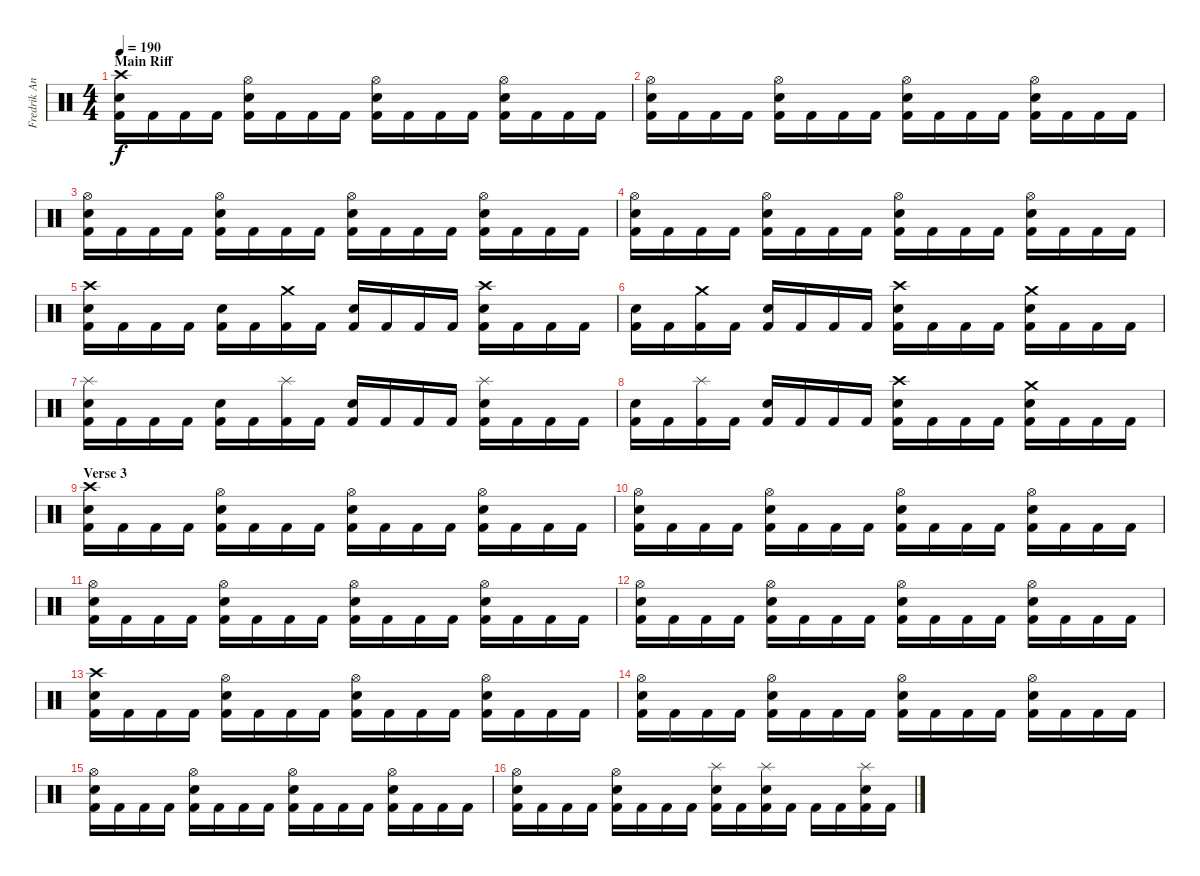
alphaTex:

\track ("Fredrik Andersson" "Fredrik An") {instrument percussion}
\staff {score}
\articulation defaults
\ts (4 4)
\section ("" "Main Riff")
\tempo 190
\clef neutral
\ks c
("Crash high (hit)" "Electric Snare (hit)" "Kick (hit) 2").16{dy f} "Kick (hit) 2".16 "Kick (hit) 2".16 "Kick (hit) 2".16 ("Hi-Hat (open)" "Electric Snare (hit)" "Kick (hit) 2").16 "Kick (hit) 2".16 "Kick (hit) 2".16 "Kick (hit) 2".16 ("Hi-Hat (open)" "Electric Snare (hit)" "Kick (hit) 2").16 "Kick (hit) 2".16 "Kick (hit) 2".16 "Kick (hit) 2".16 ("Hi-Hat (open)" "Electric Snare (hit)" "Kick (hit) 2").16 "Kick (hit) 2".16 "Kick (hit) 2".16 "Kick (hit) 2".16 |
("Hi-Hat (open)" "Electric Snare (hit)" "Kick (hit) 2").16 "Kick (hit) 2".16 "Kick (hit) 2".16 "Kick (hit) 2".16 ("Hi-Hat (open)" "Electric Snare (hit)" "Kick (hit) 2").16 "Kick (hit) 2".16 "Kick (hit) 2".16 "Kick (hit) 2".16 ("Hi-Hat (open)" "Electric Snare (hit)" "Kick (hit) 2").16 "Kick (hit) 2".16 "Kick (hit) 2".16 "Kick (hit) 2".16 ("Hi-Hat (open)" "Electric Snare (hit)" "Kick (hit) 2").16 "Kick (hit) 2".16 "Kick (hit) 2".16 "Kick (hit) 2".16 |
("Hi-Hat (open)" "Electric Snare (hit)" "Kick (hit) 2").16 "Kick (hit) 2".16 "Kick (hit) 2".16 "Kick (hit) 2".16 ("Hi-Hat (open)" "Electric Snare (hit)" "Kick (hit) 2").16 "Kick (hit) 2".16 "Kick (hit) 2".16 "Kick (hit) 2".16 ("Hi-Hat (open)" "Electric Snare (hit)" "Kick (hit) 2").16 "Kick (hit) 2".16 "Kick (hit) 2".16 "Kick (hit) 2".16 ("Hi-Hat (open)" "Electric Snare (hit)" "Kick (hit) 2").16 "Kick (hit) 2".16 "Kick (hit) 2".16 "Kick (hit) 2".16 |
("Hi-Hat (open)" "Electric Snare (hit)" "Kick (hit) 2").16 "Kick (hit) 2".16 "Kick (hit) 2".16 "Kick (hit) 2".16 ("Hi-Hat (open)" "Electric Snare (hit)" "Kick (hit) 2").16 "Kick (hit) 2".16 "Kick (hit) 2".16 "Kick (hit) 2".16 ("Hi-Hat (open)" "Electric Snare (hit)" "Kick (hit) 2").16 "Kick (hit) 2".16 "Kick (hit) 2".16 "Kick (hit) 2".16 ("Hi-Hat (open)" "Electric Snare (hit)" "Kick (hit) 2").16 "Kick (hit) 2".16 "Kick (hit) 2".16 "Kick (hit) 2".16 |
("Crash high (hit)" "Electric Snare (hit)" "Kick (hit) 2").16 "Kick (hit) 2".16 "Kick (hit) 2".16 "Kick (hit) 2".16 ("Electric Snare (hit)" "Kick (hit) 2").16 "Kick (hit) 2".16 ("Crash medium (hit)" "Kick (hit) 2").16 "Kick (hit) 2".16 ("Electric Snare (hit)" "Kick (hit) 2").16 "Kick (hit) 2".16 "Kick (hit) 2".16 "Kick (hit) 2".16 ("Crash high (hit)" "Electric Snare (hit)" "Kick (hit) 2").16 "Kick (hit) 2".16 "Kick (hit) 2".16 "Kick (hit) 2".16 |
("Electric Snare (hit)" "Kick (hit) 2").16 "Kick (hit) 2".16 ("Crash medium (hit)" "Kick (hit) 2").16 "Kick (hit) 2".16 ("Electric Snare (hit)" "Kick (hit) 2").16 "Kick (hit) 2".16 "Kick (hit) 2".16 "Kick (hit) 2".16 ("Crash high (hit)" "Electric Snare (hit)" "Kick (hit) 2").16 "Kick (hit) 2".16 "Kick (hit) 2".16 "Kick (hit) 2".16 ("Crash medium (hit)" "Electric Snare (hit)" "Kick (hit) 2").16 "Kick (hit) 2".16 "Kick (hit) 2".16 "Kick (hit) 2".16 |
("Splash (hit)" "Electric Snare (hit)" "Kick (hit) 2").16 "Kick (hit) 2".16 "Kick (hit) 2".16 "Kick (hit) 2".16 ("Electric Snare (hit)" "Kick (hit) 2").16 "Kick (hit) 2".16 ("Splash (hit)" "Kick (hit) 2").16 "Kick (hit) 2".16 ("Electric Snare (hit)" "Kick (hit) 2").16 "Kick (hit) 2".16 "Kick (hit) 2".16 "Kick (hit) 2".16 ("Splash (hit)" "Electric Snare (hit)" "Kick (hit) 2").16 "Kick (hit) 2".16 "Kick (hit) 2".16 "Kick (hit) 2".16 |
("Electric Snare (hit)" "Kick (hit) 2").16 "Kick (hit) 2".16 ("Splash (hit)" "Kick (hit) 2").16 "Kick (hit) 2".16 ("Electric Snare (hit)" "Kick (hit) 2").16 "Kick (hit) 2".16 "Kick (hit) 2".16 "Kick (hit) 2".16 ("Crash high (hit)" "Electric Snare (hit)" "Kick (hit) 2").16 "Kick (hit) 2".16 "Kick (hit) 2".16 "Kick (hit) 2".16 ("Crash medium (hit)" "Electric Snare (hit)" "Kick (hit) 2").16 "Kick (hit) 2".16 "Kick (hit) 2".16 "Kick (hit) 2".16 |
\section ("" "Verse 3")
("Crash high (hit)" "Electric Snare (hit)" "Kick (hit) 2").16 "Kick (hit) 2".16 "Kick (hit) 2".16 "Kick (hit) 2".16 ("Hi-Hat (open)" "Electric Snare (hit)" "Kick (hit) 2").16 "Kick (hit) 2".16 "Kick (hit) 2".16 "Kick (hit) 2".16 ("Hi-Hat (open)" "Electric Snare (hit)" "Kick (hit) 2").16 "Kick (hit) 2".16 "Kick (hit) 2".16 "Kick (hit) 2".16 ("Hi-Hat (open)" "Electric Snare (hit)" "Kick (hit) 2").16 "Kick (hit) 2".16 "Kick (hit) 2".16 "Kick (hit) 2".16 |
("Hi-Hat (open)" "Electric Snare (hit)" "Kick (hit) 2").16 "Kick (hit) 2".16 "Kick (hit) 2".16 "Kick (hit) 2".16 ("Hi-Hat (open)" "Electric Snare (hit)" "Kick (hit) 2").16 "Kick (hit) 2".16 "Kick (hit) 2".16 "Kick (hit) 2".16 ("Hi-Hat (open)" "Electric Snare (hit)" "Kick (hit) 2").16 "Kick (hit) 2".16 "Kick (hit) 2".16 "Kick (hit) 2".16 ("Hi-Hat (open)" "Electric Snare (hit)" "Kick (hit) 2").16 "Kick (hit) 2".16 "Kick (hit) 2".16 "Kick (hit) 2".16 |
("Hi-Hat (open)" "Electric Snare (hit)" "Kick (hit) 2").16 "Kick (hit) 2".16 "Kick (hit) 2".16 "Kick (hit) 2".16 ("Hi-Hat (open)" "Electric Snare (hit)" "Kick (hit) 2").16 "Kick (hit) 2".16 "Kick (hit) 2".16 "Kick (hit) 2".16 ("Hi-Hat (open)" "Electric Snare (hit)" "Kick (hit) 2").16 "Kick (hit) 2".16 "Kick (hit) 2".16 "Kick (hit) 2".16 ("Hi-Hat (open)" "Electric Snare (hit)" "Kick (hit) 2").16 "Kick (hit) 2".16 "Kick (hit) 2".16 "Kick (hit) 2".16 |
("Hi-Hat (open)" "Electric Snare (hit)" "Kick (hit) 2").16 "Kick (hit) 2".16 "Kick (hit) 2".16 "Kick (hit) 2".16 ("Hi-Hat (open)" "Electric Snare (hit)" "Kick (hit) 2").16 "Kick (hit) 2".16 "Kick (hit) 2".16 "Kick (hit) 2".16 ("Hi-Hat (open)" "Electric Snare (hit)" "Kick (hit) 2").16 "Kick (hit) 2".16 "Kick (hit) 2".16 "Kick (hit) 2".16 ("Hi-Hat (open)" "Electric Snare (hit)" "Kick (hit) 2").16 "Kick (hit) 2".16 "Kick (hit) 2".16 "Kick (hit) 2".16 |
("Crash high (hit)" "Electric Snare (hit)" "Kick (hit) 2").16 "Kick (hit) 2".16 "Kick (hit) 2".16 "Kick (hit) 2".16 ("Hi-Hat (open)" "Electric Snare (hit)" "Kick (hit) 2").16 "Kick (hit) 2".16 "Kick (hit) 2".16 "Kick (hit) 2".16 ("Hi-Hat (open)" "Electric Snare (hit)" "Kick (hit) 2").16 "Kick (hit) 2".16 "Kick (hit) 2".16 "Kick (hit) 2".16 ("Hi-Hat (open)" "Electric Snare (hit)" "Kick (hit) 2").16 "Kick (hit) 2".16 "Kick (hit) 2".16 "Kick (hit) 2".16 |
("Hi-Hat (open)" "Electric Snare (hit)" "Kick (hit) 2").16 "Kick (hit) 2".16 "Kick (hit) 2".16 "Kick (hit) 2".16 ("Hi-Hat (open)" "Electric Snare (hit)" "Kick (hit) 2").16 "Kick (hit) 2".16 "Kick (hit) 2".16 "Kick (hit) 2".16 ("Hi-Hat (open)" "Electric Snare (hit)" "Kick (hit) 2").16 "Kick (hit) 2".16 "Kick (hit) 2".16 "Kick (hit) 2".16 ("Hi-Hat (open)" "Electric Snare (hit)" "Kick (hit) 2").16 "Kick (hit) 2".16 "Kick (hit) 2".16 "Kick (hit) 2".16 |
("Hi-Hat (open)" "Electric Snare (hit)" "Kick (hit) 2").16 "Kick (hit) 2".16 "Kick (hit) 2".16 "Kick (hit) 2".16 ("Hi-Hat (open)" "Electric Snare (hit)" "Kick (hit) 2").16 "Kick (hit) 2".16 "Kick (hit) 2".16 "Kick (hit) 2".16 ("Hi-Hat (open)" "Electric Snare (hit)" "Kick (hit) 2").16 "Kick (hit) 2".16 "Kick (hit) 2".16 "Kick (hit) 2".16 ("Hi-Hat (open)" "Electric Snare (hit)" "Kick (hit) 2").16 "Kick (hit) 2".16 "Kick (hit) 2".16 "Kick (hit) 2".16 |
("Hi-Hat (open)" "Electric Snare (hit)" "Kick (hit) 2").16 "Kick (hit) 2".16 "Kick (hit) 2".16 "Kick (hit) 2".16 ("Hi-Hat (open)" "Electric Snare (hit)" "Kick (hit) 2").16 "Kick (hit) 2".16 "Kick (hit) 2".16 "Kick (hit) 2".16 ("Splash (hit)" "Electric Snare (hit)" "Kick (hit) 2").16 "Kick (hit) 2".16 ("Splash (hit)" "Electric Snare (hit)" "Kick (hit) 2").16 "Kick (hit) 2".16 "Kick (hit) 2".16 "Kick (hit) 2".16 ("Splash (hit)" "Electric Snare (hit)" "Kick (hit) 2").16 "Kick (hit) 2".16
